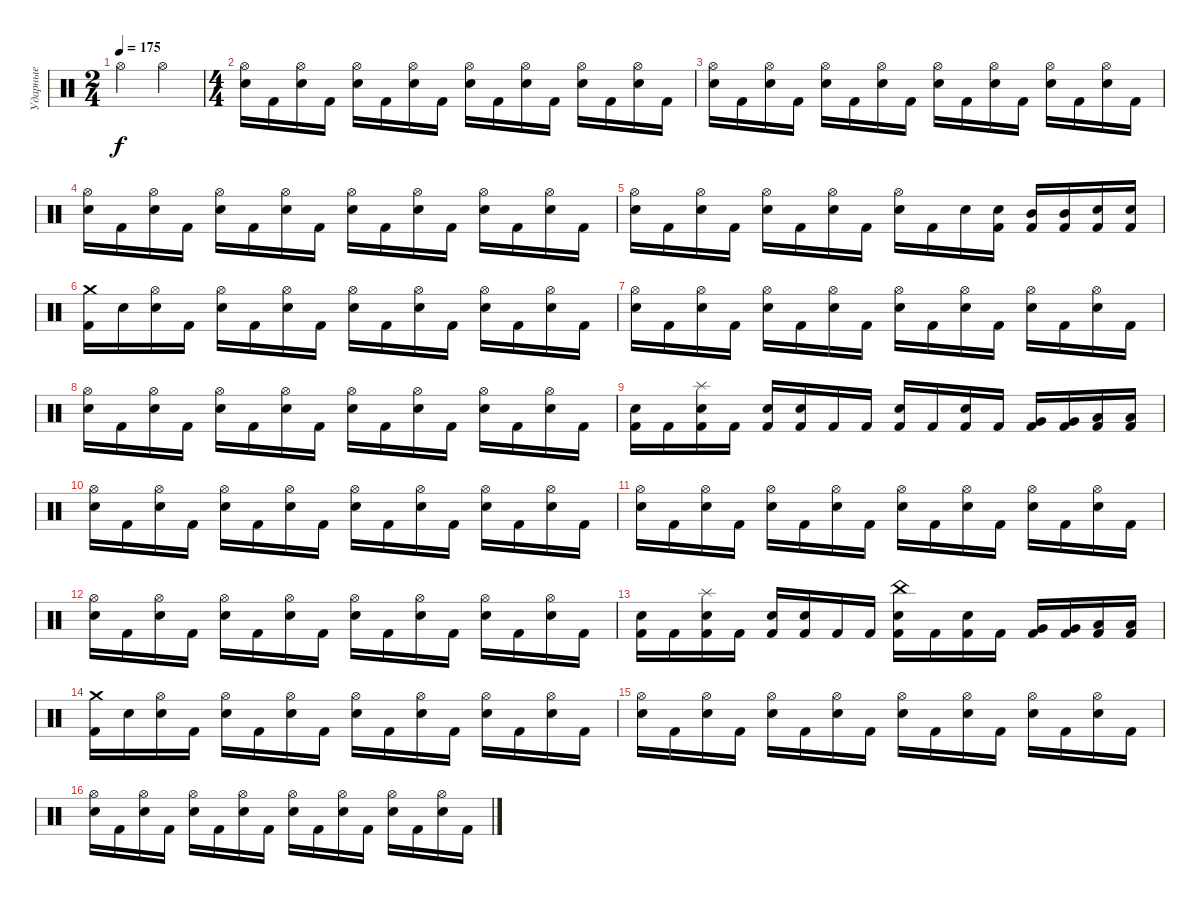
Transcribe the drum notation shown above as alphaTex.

\track ("Ударные" "Ударные") {instrument percussion}
\staff {score}
\articulation defaults
\ts (2 4)
\tempo 175
\clef neutral
\ks c "Hi-Hat (open)".4{dy f} "Hi-Hat (open)".4
|
\ts (4 4)
("Electric Snare (hit)" "Hi-Hat (open)").16 "Kick (hit) 2".16 ("Electric Snare (hit)" "Hi-Hat (open)").16 "Kick (hit) 2".16 ("Electric Snare (hit)" "Hi-Hat (open)").16 "Kick (hit) 2".16 ("Electric Snare (hit)" "Hi-Hat (open)").16 "Kick (hit) 2".16 ("Electric Snare (hit)" "Hi-Hat (open)").16 "Kick (hit) 2".16 ("Electric Snare (hit)" "Hi-Hat (open)").16 "Kick (hit) 2".16 ("Electric Snare (hit)" "Hi-Hat (open)").16 "Kick (hit) 2".16 ("Electric Snare (hit)" "Hi-Hat (open)").16 "Kick (hit) 2".16 |
("Electric Snare (hit)" "Hi-Hat (open)").16 "Kick (hit) 2".16 ("Electric Snare (hit)" "Hi-Hat (open)").16 "Kick (hit) 2".16 ("Electric Snare (hit)" "Hi-Hat (open)").16 "Kick (hit) 2".16 ("Electric Snare (hit)" "Hi-Hat (open)").16 "Kick (hit) 2".16 ("Electric Snare (hit)" "Hi-Hat (open)").16 "Kick (hit) 2".16 ("Electric Snare (hit)" "Hi-Hat (open)").16 "Kick (hit) 2".16 ("Electric Snare (hit)" "Hi-Hat (open)").16 "Kick (hit) 2".16 ("Electric Snare (hit)" "Hi-Hat (open)").16 "Kick (hit) 2".16 |
("Electric Snare (hit)" "Hi-Hat (open)").16 "Kick (hit) 2".16 ("Electric Snare (hit)" "Hi-Hat (open)").16 "Kick (hit) 2".16 ("Electric Snare (hit)" "Hi-Hat (open)").16 "Kick (hit) 2".16 ("Electric Snare (hit)" "Hi-Hat (open)").16 "Kick (hit) 2".16 ("Electric Snare (hit)" "Hi-Hat (open)").16 "Kick (hit) 2".16 ("Electric Snare (hit)" "Hi-Hat (open)").16 "Kick (hit) 2".16 ("Electric Snare (hit)" "Hi-Hat (open)").16 "Kick (hit) 2".16 ("Electric Snare (hit)" "Hi-Hat (open)").16 "Kick (hit) 2".16 |
("Electric Snare (hit)" "Hi-Hat (open)").16 "Kick (hit) 2".16 ("Electric Snare (hit)" "Hi-Hat (open)").16 "Kick (hit) 2".16 ("Electric Snare (hit)" "Hi-Hat (open)").16 "Kick (hit) 2".16 ("Electric Snare (hit)" "Hi-Hat (open)").16 "Kick (hit) 2".16 ("Electric Snare (hit)" "Hi-Hat (open)").16 "Kick (hit) 2".16 "Electric Snare (hit)".16 ("Electric Snare (hit)" "Kick (hit) 2").16 ("Mid Tom (hit)" "Kick (hit) 2").16 ("Mid Tom (hit)" "Kick (hit) 2").16 ("Electric Snare (hit)" "Kick (hit) 2").16 ("Electric Snare (hit)" "Kick (hit) 2").16 |
("Crash medium (hit)" "Kick (hit) 2").16 "Snare (hit)".16 ("Electric Snare (hit)" "Hi-Hat (open)").16 "Kick (hit) 2".16 ("Electric Snare (hit)" "Hi-Hat (open)").16 "Kick (hit) 2".16 ("Electric Snare (hit)" "Hi-Hat (open)").16 "Kick (hit) 2".16 ("Electric Snare (hit)" "Hi-Hat (open)").16 "Kick (hit) 2".16 ("Electric Snare (hit)" "Hi-Hat (open)").16 "Kick (hit) 2".16 ("Electric Snare (hit)" "Hi-Hat (open)").16 "Kick (hit) 2".16 ("Electric Snare (hit)" "Hi-Hat (open)").16 "Kick (hit) 2".16 |
("Electric Snare (hit)" "Hi-Hat (open)").16 "Kick (hit) 2".16 ("Electric Snare (hit)" "Hi-Hat (open)").16 "Kick (hit) 2".16 ("Electric Snare (hit)" "Hi-Hat (open)").16 "Kick (hit) 2".16 ("Electric Snare (hit)" "Hi-Hat (open)").16 "Kick (hit) 2".16 ("Electric Snare (hit)" "Hi-Hat (open)").16 "Kick (hit) 2".16 ("Electric Snare (hit)" "Hi-Hat (open)").16 "Kick (hit) 2".16 ("Electric Snare (hit)" "Hi-Hat (open)").16 "Kick (hit) 2".16 ("Electric Snare (hit)" "Hi-Hat (open)").16 "Kick (hit) 2".16 |
("Electric Snare (hit)" "Hi-Hat (open)").16 "Kick (hit) 2".16 ("Electric Snare (hit)" "Hi-Hat (open)").16 "Kick (hit) 2".16 ("Electric Snare (hit)" "Hi-Hat (open)").16 "Kick (hit) 2".16 ("Electric Snare (hit)" "Hi-Hat (open)").16 "Kick (hit) 2".16 ("Electric Snare (hit)" "Hi-Hat (open)").16 "Kick (hit) 2".16 ("Electric Snare (hit)" "Hi-Hat (open)").16 "Kick (hit) 2".16 ("Electric Snare (hit)" "Hi-Hat (open)").16 "Kick (hit) 2".16 ("Electric Snare (hit)" "Hi-Hat (open)").16 "Kick (hit) 2".16 |
("Electric Snare (hit)" "Kick (hit) 2").16 "Kick (hit) 2".16 ("Electric Snare (hit)" "Splash (hit)" "Kick (hit) 2").16 "Kick (hit) 2".16 ("Electric Snare (hit)" "Kick (hit) 2").16 ("Electric Snare (hit)" "Kick (hit) 2").16 "Kick (hit) 2".16 "Kick (hit) 2".16 ("Electric Snare (hit)" "Kick (hit) 2").16 "Kick (hit) 2".16 ("Electric Snare (hit)" "Kick (hit) 2").16 "Kick (hit) 2".16 ("Very Low Tom (hit)" "Kick (hit) 2").16 ("Very Low Tom (hit)" "Kick (hit) 2").16 ("Low Floor Tom (hit)" "Kick (hit) 2").16 ("Low Floor Tom (hit)" "Kick (hit) 2").16 |
("Electric Snare (hit)" "Hi-Hat (open)").16 "Kick (hit) 2".16 ("Electric Snare (hit)" "Hi-Hat (open)").16 "Kick (hit) 2".16 ("Electric Snare (hit)" "Hi-Hat (open)").16 "Kick (hit) 2".16 ("Electric Snare (hit)" "Hi-Hat (open)").16 "Kick (hit) 2".16 ("Electric Snare (hit)" "Hi-Hat (open)").16 "Kick (hit) 2".16 ("Electric Snare (hit)" "Hi-Hat (open)").16 "Kick (hit) 2".16 ("Electric Snare (hit)" "Hi-Hat (open)").16 "Kick (hit) 2".16 ("Electric Snare (hit)" "Hi-Hat (open)").16 "Kick (hit) 2".16 |
("Electric Snare (hit)" "Hi-Hat (open)").16 "Kick (hit) 2".16 ("Electric Snare (hit)" "Hi-Hat (open)").16 "Kick (hit) 2".16 ("Electric Snare (hit)" "Hi-Hat (open)").16 "Kick (hit) 2".16 ("Electric Snare (hit)" "Hi-Hat (open)").16 "Kick (hit) 2".16 ("Electric Snare (hit)" "Hi-Hat (open)").16 "Kick (hit) 2".16 ("Electric Snare (hit)" "Hi-Hat (open)").16 "Kick (hit) 2".16 ("Electric Snare (hit)" "Hi-Hat (open)").16 "Kick (hit) 2".16 ("Electric Snare (hit)" "Hi-Hat (open)").16 "Kick (hit) 2".16 |
("Electric Snare (hit)" "Hi-Hat (open)").16 "Kick (hit) 2".16 ("Electric Snare (hit)" "Hi-Hat (open)").16 "Kick (hit) 2".16 ("Electric Snare (hit)" "Hi-Hat (open)").16 "Kick (hit) 2".16 ("Electric Snare (hit)" "Hi-Hat (open)").16 "Kick (hit) 2".16 ("Electric Snare (hit)" "Hi-Hat (open)").16 "Kick (hit) 2".16 ("Electric Snare (hit)" "Hi-Hat (open)").16 "Kick (hit) 2".16 ("Electric Snare (hit)" "Hi-Hat (open)").16 "Kick (hit) 2".16 ("Electric Snare (hit)" "Hi-Hat (open)").16 "Kick (hit) 2".16 |
("Electric Snare (hit)" "Kick (hit) 2").16 "Kick (hit) 2".16 ("Electric Snare (hit)" "Splash (hit)" "Kick (hit) 2").16 "Kick (hit) 2".16 ("Electric Snare (hit)" "Kick (hit) 2").16 ("Electric Snare (hit)" "Kick (hit) 2").16 "Kick (hit) 2".16 "Kick (hit) 2".16 ("Electric Snare (hit)" "China (hit)" "Kick (hit) 2").16 "Kick (hit) 2".16 ("Electric Snare (hit)" "Kick (hit) 2").16 "Kick (hit) 2".16 ("Very Low Tom (hit)" "Kick (hit) 2").16 ("Very Low Tom (hit)" "Kick (hit) 2").16 ("Low Floor Tom (hit)" "Kick (hit) 2").16 ("Low Floor Tom (hit)" "Kick (hit) 2").16 |
("Crash medium (hit)" "Kick (hit) 2").16 "Snare (hit)".16 ("Electric Snare (hit)" "Hi-Hat (open)").16 "Kick (hit) 2".16 ("Electric Snare (hit)" "Hi-Hat (open)").16 "Kick (hit) 2".16 ("Electric Snare (hit)" "Hi-Hat (open)").16 "Kick (hit) 2".16 ("Electric Snare (hit)" "Hi-Hat (open)").16 "Kick (hit) 2".16 ("Electric Snare (hit)" "Hi-Hat (open)").16 "Kick (hit) 2".16 ("Electric Snare (hit)" "Hi-Hat (open)").16 "Kick (hit) 2".16 ("Electric Snare (hit)" "Hi-Hat (open)").16 "Kick (hit) 2".16 |
("Electric Snare (hit)" "Hi-Hat (open)").16 "Kick (hit) 2".16 ("Electric Snare (hit)" "Hi-Hat (open)").16 "Kick (hit) 2".16 ("Electric Snare (hit)" "Hi-Hat (open)").16 "Kick (hit) 2".16 ("Electric Snare (hit)" "Hi-Hat (open)").16 "Kick (hit) 2".16 ("Electric Snare (hit)" "Hi-Hat (open)").16 "Kick (hit) 2".16 ("Electric Snare (hit)" "Hi-Hat (open)").16 "Kick (hit) 2".16 ("Electric Snare (hit)" "Hi-Hat (open)").16 "Kick (hit) 2".16 ("Electric Snare (hit)" "Hi-Hat (open)").16 "Kick (hit) 2".16 |
("Electric Snare (hit)" "Hi-Hat (open)").16 "Kick (hit) 2".16 ("Electric Snare (hit)" "Hi-Hat (open)").16 "Kick (hit) 2".16 ("Electric Snare (hit)" "Hi-Hat (open)").16 "Kick (hit) 2".16 ("Electric Snare (hit)" "Hi-Hat (open)").16 "Kick (hit) 2".16 ("Electric Snare (hit)" "Hi-Hat (open)").16 "Kick (hit) 2".16 ("Electric Snare (hit)" "Hi-Hat (open)").16 "Kick (hit) 2".16 ("Electric Snare (hit)" "Hi-Hat (open)").16 "Kick (hit) 2".16 ("Electric Snare (hit)" "Hi-Hat (open)").16 "Kick (hit) 2".16
